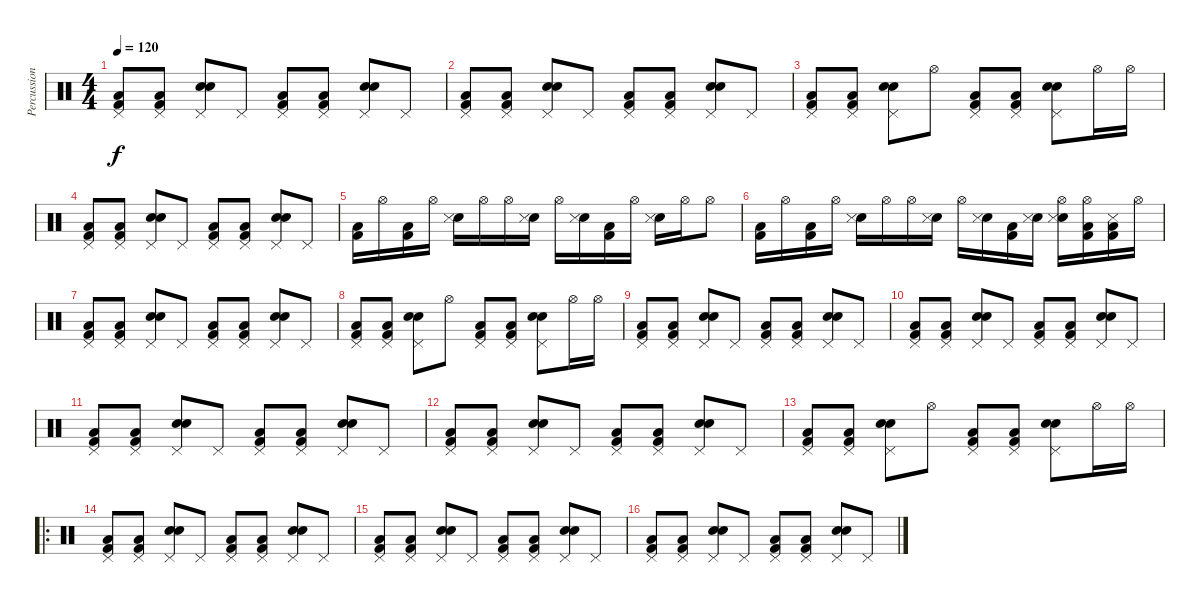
\track ("Percussions" "Percussion") {instrument percussion}
\staff {score}
\articulation defaults
\ts (4 4)
\tempo 120
\clef neutral
\ks c
("Pedal Hi-Hat (hit)" "Kick (hit) 2" "Low Floor Tom (hit)").8{dy f} ("Pedal Hi-Hat (hit)" "Kick (hit) 2" "Low Floor Tom (hit)").8 ("Pedal Hi-Hat (hit)" "Snare (hit) 2" "Electric Snare (hit)").8 "Pedal Hi-Hat (hit)".8 ("Pedal Hi-Hat (hit)" "Kick (hit) 2" "Low Floor Tom (hit)").8 ("Pedal Hi-Hat (hit)" "Kick (hit) 2" "Low Floor Tom (hit)").8 ("Pedal Hi-Hat (hit)" "Snare (hit) 2" "Electric Snare (hit)").8 "Pedal Hi-Hat (hit)".8 |
("Pedal Hi-Hat (hit)" "Kick (hit) 2" "Low Floor Tom (hit)").8 ("Pedal Hi-Hat (hit)" "Kick (hit) 2" "Low Floor Tom (hit)").8 ("Pedal Hi-Hat (hit)" "Snare (hit) 2" "Electric Snare (hit)").8 "Pedal Hi-Hat (hit)".8 ("Pedal Hi-Hat (hit)" "Kick (hit) 2" "Low Floor Tom (hit)").8 ("Pedal Hi-Hat (hit)" "Kick (hit) 2" "Low Floor Tom (hit)").8 ("Pedal Hi-Hat (hit)" "Snare (hit) 2" "Electric Snare (hit)").8 "Pedal Hi-Hat (hit)".8 |
("Pedal Hi-Hat (hit)" "Kick (hit) 2" "Low Floor Tom (hit)").8 ("Pedal Hi-Hat (hit)" "Kick (hit) 2" "Low Floor Tom (hit)").8 ("Pedal Hi-Hat (hit)" "Snare (hit) 2" "Electric Snare (hit)").8 "Hi-Hat (open)".8 ("Pedal Hi-Hat (hit)" "Kick (hit) 2" "Low Floor Tom (hit)").8 ("Pedal Hi-Hat (hit)" "Kick (hit) 2" "Low Floor Tom (hit)").8 ("Pedal Hi-Hat (hit)" "Snare (hit) 2" "Electric Snare (hit)").8 "Hi-Hat (open)".16 "Hi-Hat (open)".16 |
("Pedal Hi-Hat (hit)" "Kick (hit) 2" "Low Floor Tom (hit)").8 ("Pedal Hi-Hat (hit)" "Kick (hit) 2" "Low Floor Tom (hit)").8 ("Pedal Hi-Hat (hit)" "Snare (hit) 2" "Electric Snare (hit)").8 "Pedal Hi-Hat (hit)".8 ("Pedal Hi-Hat (hit)" "Kick (hit) 2" "Low Floor Tom (hit)").8 ("Pedal Hi-Hat (hit)" "Kick (hit) 2" "Low Floor Tom (hit)").8 ("Pedal Hi-Hat (hit)" "Snare (hit) 2" "Electric Snare (hit)").8 "Pedal Hi-Hat (hit)".8 |
("Kick (hit) 2" "Low Floor Tom (hit)").16 "Hi-Hat (open)".16 ("Kick (hit) 2" "Low Floor Tom (hit)").16 "Hi-Hat (open)".16 ("Snare (hit) 2" "Snare (side stick) 3").16 "Hi-Hat (open)".16 "Hi-Hat (open)".16 ("Snare (hit) 2" "Snare (side stick) 3").16 "Hi-Hat (open)".16 ("Snare (hit) 2" "Snare (side stick) 3").16 ("Kick (hit) 2" "Low Floor Tom (hit)").16 "Hi-Hat (open)".16 ("Snare (hit) 2" "Snare (side stick) 3").16 "Hi-Hat (open)".16 "Hi-Hat (open)".8 |
("Kick (hit) 2" "Low Floor Tom (hit)").16 "Hi-Hat (open)".16 ("Kick (hit) 2" "Low Floor Tom (hit)").16 "Hi-Hat (open)".16 ("Snare (hit) 2" "Snare (side stick) 3").16 "Hi-Hat (open)".16 "Hi-Hat (open)".16 ("Snare (hit) 2" "Snare (side stick) 3").16 "Hi-Hat (open)".16 ("Snare (hit) 2" "Snare (side stick) 3").16 ("Kick (hit) 2" "Low Floor Tom (hit)").16 ("Snare (hit) 2" "Snare (side stick) 3").16 ("Hi-Hat (open)" "Snare (hit) 2" "Snare (side stick) 3").16 ("Hi-Hat (open)" "Kick (hit) 2" "Low Floor Tom (hit)").16 ("Kick (hit) 2" "Low Floor Tom (hit)" "Snare (side stick) 3").16 "Hi-Hat (open)".16 |
("Pedal Hi-Hat (hit)" "Kick (hit) 2" "Low Floor Tom (hit)").8 ("Pedal Hi-Hat (hit)" "Kick (hit) 2" "Low Floor Tom (hit)").8 ("Pedal Hi-Hat (hit)" "Snare (hit) 2" "Electric Snare (hit)").8 "Pedal Hi-Hat (hit)".8 ("Pedal Hi-Hat (hit)" "Kick (hit) 2" "Low Floor Tom (hit)").8 ("Pedal Hi-Hat (hit)" "Kick (hit) 2" "Low Floor Tom (hit)").8 ("Pedal Hi-Hat (hit)" "Snare (hit) 2" "Electric Snare (hit)").8 "Pedal Hi-Hat (hit)".8 |
("Pedal Hi-Hat (hit)" "Kick (hit) 2" "Low Floor Tom (hit)").8 ("Pedal Hi-Hat (hit)" "Kick (hit) 2" "Low Floor Tom (hit)").8 ("Pedal Hi-Hat (hit)" "Snare (hit) 2" "Electric Snare (hit)").8 "Hi-Hat (open)".8 ("Pedal Hi-Hat (hit)" "Kick (hit) 2" "Low Floor Tom (hit)").8 ("Pedal Hi-Hat (hit)" "Kick (hit) 2" "Low Floor Tom (hit)").8 ("Pedal Hi-Hat (hit)" "Snare (hit) 2" "Electric Snare (hit)").8 "Hi-Hat (open)".16 "Hi-Hat (open)".16 |
("Pedal Hi-Hat (hit)" "Kick (hit) 2" "Low Floor Tom (hit)").8 ("Pedal Hi-Hat (hit)" "Kick (hit) 2" "Low Floor Tom (hit)").8 ("Pedal Hi-Hat (hit)" "Snare (hit) 2" "Electric Snare (hit)").8 "Pedal Hi-Hat (hit)".8 ("Pedal Hi-Hat (hit)" "Kick (hit) 2" "Low Floor Tom (hit)").8 ("Pedal Hi-Hat (hit)" "Kick (hit) 2" "Low Floor Tom (hit)").8 ("Pedal Hi-Hat (hit)" "Snare (hit) 2" "Electric Snare (hit)").8 "Pedal Hi-Hat (hit)".8 |
("Pedal Hi-Hat (hit)" "Kick (hit) 2" "Low Floor Tom (hit)").8 ("Pedal Hi-Hat (hit)" "Kick (hit) 2" "Low Floor Tom (hit)").8 ("Pedal Hi-Hat (hit)" "Snare (hit) 2" "Electric Snare (hit)").8 "Pedal Hi-Hat (hit)".8 ("Pedal Hi-Hat (hit)" "Kick (hit) 2" "Low Floor Tom (hit)").8 ("Pedal Hi-Hat (hit)" "Kick (hit) 2" "Low Floor Tom (hit)").8 ("Pedal Hi-Hat (hit)" "Snare (hit) 2" "Electric Snare (hit)").8 "Pedal Hi-Hat (hit)".8 |
("Pedal Hi-Hat (hit)" "Kick (hit) 2" "Low Floor Tom (hit)").8 ("Pedal Hi-Hat (hit)" "Kick (hit) 2" "Low Floor Tom (hit)").8 ("Pedal Hi-Hat (hit)" "Snare (hit) 2" "Electric Snare (hit)").8 "Pedal Hi-Hat (hit)".8 ("Pedal Hi-Hat (hit)" "Kick (hit) 2" "Low Floor Tom (hit)").8 ("Pedal Hi-Hat (hit)" "Kick (hit) 2" "Low Floor Tom (hit)").8 ("Pedal Hi-Hat (hit)" "Snare (hit) 2" "Electric Snare (hit)").8 "Pedal Hi-Hat (hit)".8 |
("Pedal Hi-Hat (hit)" "Kick (hit) 2" "Low Floor Tom (hit)").8 ("Pedal Hi-Hat (hit)" "Kick (hit) 2" "Low Floor Tom (hit)").8 ("Pedal Hi-Hat (hit)" "Snare (hit) 2" "Electric Snare (hit)").8 "Pedal Hi-Hat (hit)".8 ("Pedal Hi-Hat (hit)" "Kick (hit) 2" "Low Floor Tom (hit)").8 ("Pedal Hi-Hat (hit)" "Kick (hit) 2" "Low Floor Tom (hit)").8 ("Pedal Hi-Hat (hit)" "Snare (hit) 2" "Electric Snare (hit)").8 "Pedal Hi-Hat (hit)".8 |
("Pedal Hi-Hat (hit)" "Kick (hit) 2" "Low Floor Tom (hit)").8 ("Pedal Hi-Hat (hit)" "Kick (hit) 2" "Low Floor Tom (hit)").8 ("Pedal Hi-Hat (hit)" "Snare (hit) 2" "Electric Snare (hit)").8 "Hi-Hat (open)".8 ("Pedal Hi-Hat (hit)" "Kick (hit) 2" "Low Floor Tom (hit)").8 ("Pedal Hi-Hat (hit)" "Kick (hit) 2" "Low Floor Tom (hit)").8 ("Pedal Hi-Hat (hit)" "Snare (hit) 2" "Electric Snare (hit)").8 "Hi-Hat (open)".16 "Hi-Hat (open)".16 |
\ro
("Pedal Hi-Hat (hit)" "Kick (hit) 2" "Low Floor Tom (hit)").8 ("Pedal Hi-Hat (hit)" "Kick (hit) 2" "Low Floor Tom (hit)").8 ("Pedal Hi-Hat (hit)" "Snare (hit) 2" "Electric Snare (hit)").8 "Pedal Hi-Hat (hit)".8 ("Pedal Hi-Hat (hit)" "Kick (hit) 2" "Low Floor Tom (hit)").8 ("Pedal Hi-Hat (hit)" "Kick (hit) 2" "Low Floor Tom (hit)").8 ("Pedal Hi-Hat (hit)" "Snare (hit) 2" "Electric Snare (hit)").8 "Pedal Hi-Hat (hit)".8 |
("Pedal Hi-Hat (hit)" "Kick (hit) 2" "Low Floor Tom (hit)").8 ("Pedal Hi-Hat (hit)" "Kick (hit) 2" "Low Floor Tom (hit)").8 ("Pedal Hi-Hat (hit)" "Snare (hit) 2" "Electric Snare (hit)").8 "Pedal Hi-Hat (hit)".8 ("Pedal Hi-Hat (hit)" "Kick (hit) 2" "Low Floor Tom (hit)").8 ("Pedal Hi-Hat (hit)" "Kick (hit) 2" "Low Floor Tom (hit)").8 ("Pedal Hi-Hat (hit)" "Snare (hit) 2" "Electric Snare (hit)").8 "Pedal Hi-Hat (hit)".8 |
("Pedal Hi-Hat (hit)" "Kick (hit) 2" "Low Floor Tom (hit)").8 ("Pedal Hi-Hat (hit)" "Kick (hit) 2" "Low Floor Tom (hit)").8 ("Pedal Hi-Hat (hit)" "Snare (hit) 2" "Electric Snare (hit)").8 "Pedal Hi-Hat (hit)".8 ("Pedal Hi-Hat (hit)" "Kick (hit) 2" "Low Floor Tom (hit)").8 ("Pedal Hi-Hat (hit)" "Kick (hit) 2" "Low Floor Tom (hit)").8 ("Pedal Hi-Hat (hit)" "Snare (hit) 2" "Electric Snare (hit)").8 "Pedal Hi-Hat (hit)".8
